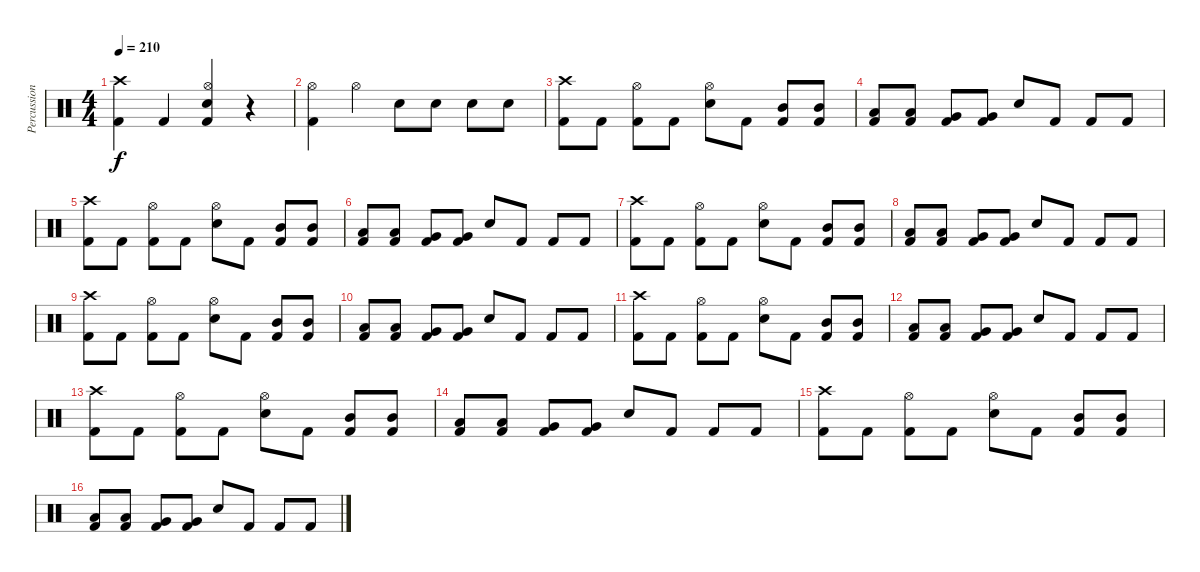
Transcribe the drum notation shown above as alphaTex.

\track ("Percussion" "Percussion") {instrument percussion}
\staff {score}
\articulation defaults
\ts (4 4)
\tempo 210
\clef neutral
\ks c
("Crash high (hit)" "Kick (hit) 2").4{dy f} "Kick (hit) 2".4 ("Hi-Hat (open)" "Electric Snare (hit)" "Kick (hit) 2").4 r.4 |
("Hi-Hat (open)" "Kick (hit) 2").4 "Hi-Hat (open)".4 "Electric Snare (hit)".8 "Electric Snare (hit)".8 "Electric Snare (hit)".8 "Electric Snare (hit)".8 |
("Crash high (hit)" "Kick (hit) 2").8 "Kick (hit) 2".8 ("Hi-Hat (open)" "Kick (hit) 2").8 "Kick (hit) 2".8 ("Hi-Hat (open)" "Electric Snare (hit)").8 "Kick (hit) 2".8 ("Mid Tom (hit)" "Kick (hit) 2").8 ("Mid Tom (hit)" "Kick (hit) 2").8 |
("Low Tom (hit)" "Kick (hit) 2").8 ("Low Tom (hit)" "Kick (hit) 2").8 ("Very Low Tom (hit)" "Kick (hit) 2").8 ("Very Low Tom (hit)" "Kick (hit) 2").8 "Electric Snare (hit)".8 "Kick (hit) 2".8 "Kick (hit) 2".8 "Kick (hit) 2".8 |
("Crash high (hit)" "Kick (hit) 2").8 "Kick (hit) 2".8 ("Hi-Hat (open)" "Kick (hit) 2").8 "Kick (hit) 2".8 ("Hi-Hat (open)" "Electric Snare (hit)").8 "Kick (hit) 2".8 ("Mid Tom (hit)" "Kick (hit) 2").8 ("Mid Tom (hit)" "Kick (hit) 2").8 |
("Low Tom (hit)" "Kick (hit) 2").8 ("Low Tom (hit)" "Kick (hit) 2").8 ("Very Low Tom (hit)" "Kick (hit) 2").8 ("Very Low Tom (hit)" "Kick (hit) 2").8 "Electric Snare (hit)".8 "Kick (hit) 2".8 "Kick (hit) 2".8 "Kick (hit) 2".8 |
("Crash high (hit)" "Kick (hit) 2").8 "Kick (hit) 2".8 ("Hi-Hat (open)" "Kick (hit) 2").8 "Kick (hit) 2".8 ("Hi-Hat (open)" "Electric Snare (hit)").8 "Kick (hit) 2".8 ("Mid Tom (hit)" "Kick (hit) 2").8 ("Mid Tom (hit)" "Kick (hit) 2").8 |
("Low Tom (hit)" "Kick (hit) 2").8 ("Low Tom (hit)" "Kick (hit) 2").8 ("Very Low Tom (hit)" "Kick (hit) 2").8 ("Very Low Tom (hit)" "Kick (hit) 2").8 "Electric Snare (hit)".8 "Kick (hit) 2".8 "Kick (hit) 2".8 "Kick (hit) 2".8 |
("Crash high (hit)" "Kick (hit) 2").8 "Kick (hit) 2".8 ("Hi-Hat (open)" "Kick (hit) 2").8 "Kick (hit) 2".8 ("Hi-Hat (open)" "Electric Snare (hit)").8 "Kick (hit) 2".8 ("Mid Tom (hit)" "Kick (hit) 2").8 ("Mid Tom (hit)" "Kick (hit) 2").8 |
("Low Tom (hit)" "Kick (hit) 2").8 ("Low Tom (hit)" "Kick (hit) 2").8 ("Very Low Tom (hit)" "Kick (hit) 2").8 ("Very Low Tom (hit)" "Kick (hit) 2").8 "Electric Snare (hit)".8 "Kick (hit) 2".8 "Kick (hit) 2".8 "Kick (hit) 2".8 |
("Crash high (hit)" "Kick (hit) 2").8 "Kick (hit) 2".8 ("Hi-Hat (open)" "Kick (hit) 2").8 "Kick (hit) 2".8 ("Hi-Hat (open)" "Electric Snare (hit)").8 "Kick (hit) 2".8 ("Mid Tom (hit)" "Kick (hit) 2").8 ("Mid Tom (hit)" "Kick (hit) 2").8 |
("Low Tom (hit)" "Kick (hit) 2").8 ("Low Tom (hit)" "Kick (hit) 2").8 ("Very Low Tom (hit)" "Kick (hit) 2").8 ("Very Low Tom (hit)" "Kick (hit) 2").8 "Electric Snare (hit)".8 "Kick (hit) 2".8 "Kick (hit) 2".8 "Kick (hit) 2".8 |
("Crash high (hit)" "Kick (hit) 2").8 "Kick (hit) 2".8 ("Hi-Hat (open)" "Kick (hit) 2").8 "Kick (hit) 2".8 ("Hi-Hat (open)" "Electric Snare (hit)").8 "Kick (hit) 2".8 ("Mid Tom (hit)" "Kick (hit) 2").8 ("Mid Tom (hit)" "Kick (hit) 2").8 |
("Low Tom (hit)" "Kick (hit) 2").8 ("Low Tom (hit)" "Kick (hit) 2").8 ("Very Low Tom (hit)" "Kick (hit) 2").8 ("Very Low Tom (hit)" "Kick (hit) 2").8 "Electric Snare (hit)".8 "Kick (hit) 2".8 "Kick (hit) 2".8 "Kick (hit) 2".8 |
("Crash high (hit)" "Kick (hit) 2").8 "Kick (hit) 2".8 ("Hi-Hat (open)" "Kick (hit) 2").8 "Kick (hit) 2".8 ("Hi-Hat (open)" "Electric Snare (hit)").8 "Kick (hit) 2".8 ("Mid Tom (hit)" "Kick (hit) 2").8 ("Mid Tom (hit)" "Kick (hit) 2").8 |
("Low Tom (hit)" "Kick (hit) 2").8 ("Low Tom (hit)" "Kick (hit) 2").8 ("Very Low Tom (hit)" "Kick (hit) 2").8 ("Very Low Tom (hit)" "Kick (hit) 2").8 "Electric Snare (hit)".8 "Kick (hit) 2".8 "Kick (hit) 2".8 "Kick (hit) 2".8
